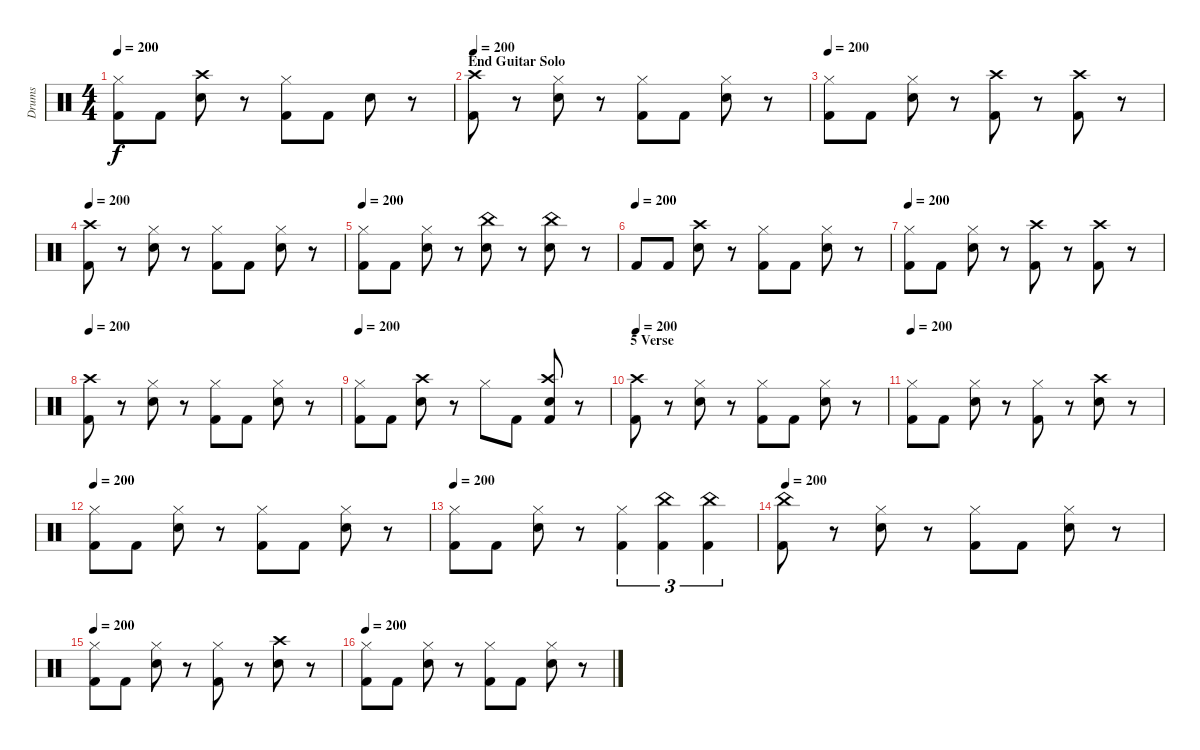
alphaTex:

\track ("Drums" "Drums") {instrument percussion}
\staff {score}
\articulation defaults
\ts (4 4)
\tempo 200
\clef neutral
\ks c
("Kick (hit) 2" "Hi-Hat (closed)").8{dy f} "Kick (hit) 2".8 ("Crash high (hit)" "Snare (hit) 2").8 r.8 ("Kick (hit) 2" "Hi-Hat (closed)").8 "Kick (hit) 2".8 "Snare (hit) 2".8 r.8 |
\section ("" "End Guitar Solo")
\tempo 200
("Kick (hit) 2" "Crash high (hit)").8 r.8 ("Hi-Hat (closed)" "Snare (hit) 2").8 r.8 ("Hi-Hat (closed)" "Kick (hit) 2").8 "Kick (hit) 2".8 ("Hi-Hat (closed)" "Snare (hit) 2").8 r.8 |
\tempo 200
("Kick (hit) 2" "Hi-Hat (closed)").8 "Kick (hit) 2".8 ("Snare (hit) 2" "Hi-Hat (closed)").8 r.8 ("Crash high (hit)" "Kick (hit) 2").8 r.8 ("Crash high (hit)" "Kick (hit) 2").8 r.8 |
\tempo 200
("Kick (hit) 2" "Crash high (hit)").8 r.8 ("Hi-Hat (closed)" "Snare (hit) 2").8 r.8 ("Hi-Hat (closed)" "Kick (hit) 2").8 "Kick (hit) 2".8 ("Hi-Hat (closed)" "Snare (hit) 2").8 r.8 |
\tempo 200
("Kick (hit) 2" "Hi-Hat (closed)").8 "Kick (hit) 2".8 ("Snare (hit) 2" "Hi-Hat (closed)").8 r.8 ("China (hit)" "Snare (hit) 2").8 r.8 ("China (hit)" "Snare (hit) 2").8 r.8 |
\tempo (200)
"Kick (hit) 2".8 "Kick (hit) 2".8 ("Crash high (hit)" "Snare (hit) 2").8 r.8 ("Hi-Hat (closed)" "Kick (hit) 2").8 "Kick (hit) 2".8 ("Hi-Hat (closed)" "Snare (hit) 2").8 r.8 |
\tempo 200
("Kick (hit) 2" "Hi-Hat (closed)").8 "Kick (hit) 2".8 ("Snare (hit) 2" "Hi-Hat (closed)").8 r.8 ("Crash high (hit)" "Kick (hit) 2").8 r.8 ("Crash high (hit)" "Kick (hit) 2").8 r.8 |
\tempo 200
("Kick (hit) 2" "Crash high (hit)").8 r.8 ("Hi-Hat (closed)" "Snare (hit) 2").8 r.8 ("Hi-Hat (closed)" "Kick (hit) 2").8 "Kick (hit) 2".8 ("Hi-Hat (closed)" "Snare (hit) 2").8 r.8 |
\tempo 200
("Kick (hit) 2" "Hi-Hat (closed)").8 "Kick (hit) 2".8 ("Crash high (hit)" "Snare (hit) 2").8 r.8 "Hi-Hat (closed)".8 "Kick (hit) 2".8 ("Kick (hit) 2" "Snare (hit) 2" "Crash high (hit)").8 r.8 |
\section ("" "5 Verse")
\tempo 200
("Kick (hit) 2" "Crash high (hit)").8 r.8 ("Hi-Hat (closed)" "Snare (hit) 2").8 r.8 ("Hi-Hat (closed)" "Kick (hit) 2").8 "Kick (hit) 2".8 ("Hi-Hat (closed)" "Snare (hit) 2").8 r.8 |
\tempo 200
("Kick (hit) 2" "Hi-Hat (closed)").8 "Kick (hit) 2".8 ("Snare (hit) 2" "Hi-Hat (closed)").8 r.8 ("Hi-Hat (closed)" "Kick (hit) 2").8 r.8 ("Crash high (hit)" "Snare (hit) 2").8 r.8 |
\tempo 200
("Hi-Hat (closed)" "Kick (hit) 2").8 "Kick (hit) 2".8 ("Snare (hit) 2" "Hi-Hat (closed)").8 r.8 ("Hi-Hat (closed)" "Kick (hit) 2").8 "Kick (hit) 2".8 ("Snare (hit) 2" "Hi-Hat (closed)").8 r.8 |
\tempo 200
("Kick (hit) 2" "Hi-Hat (closed)").8 "Kick (hit) 2".8 ("Snare (hit) 2" "Hi-Hat (closed)").8 r.8 ("Hi-Hat (closed)" "Kick (hit) 2").4{tu (3 2)} ("China (hit)" "Kick (hit) 2").4{tu (3 2)} ("China (hit)" "Kick (hit) 2").4{tu (3 2)} |
\tempo 200
("China (hit)" "Kick (hit) 2").8 r.8 ("Hi-Hat (closed)" "Snare (hit) 2").8 r.8 ("Hi-Hat (closed)" "Kick (hit) 2").8 "Kick (hit) 2".8 ("Snare (hit) 2" "Hi-Hat (closed)").8 r.8 |
\tempo 200
("Kick (hit) 2" "Hi-Hat (closed)").8 "Kick (hit) 2".8 ("Snare (hit) 2" "Hi-Hat (closed)").8 r.8 ("Hi-Hat (closed)" "Kick (hit) 2").8 r.8 ("Crash high (hit)" "Snare (hit) 2").8 r.8 |
\tempo 200
("Hi-Hat (closed)" "Kick (hit) 2").8 "Kick (hit) 2".8 ("Snare (hit) 2" "Hi-Hat (closed)").8 r.8 ("Hi-Hat (closed)" "Kick (hit) 2").8 "Kick (hit) 2".8 ("Snare (hit) 2" "Hi-Hat (closed)").8 r.8
